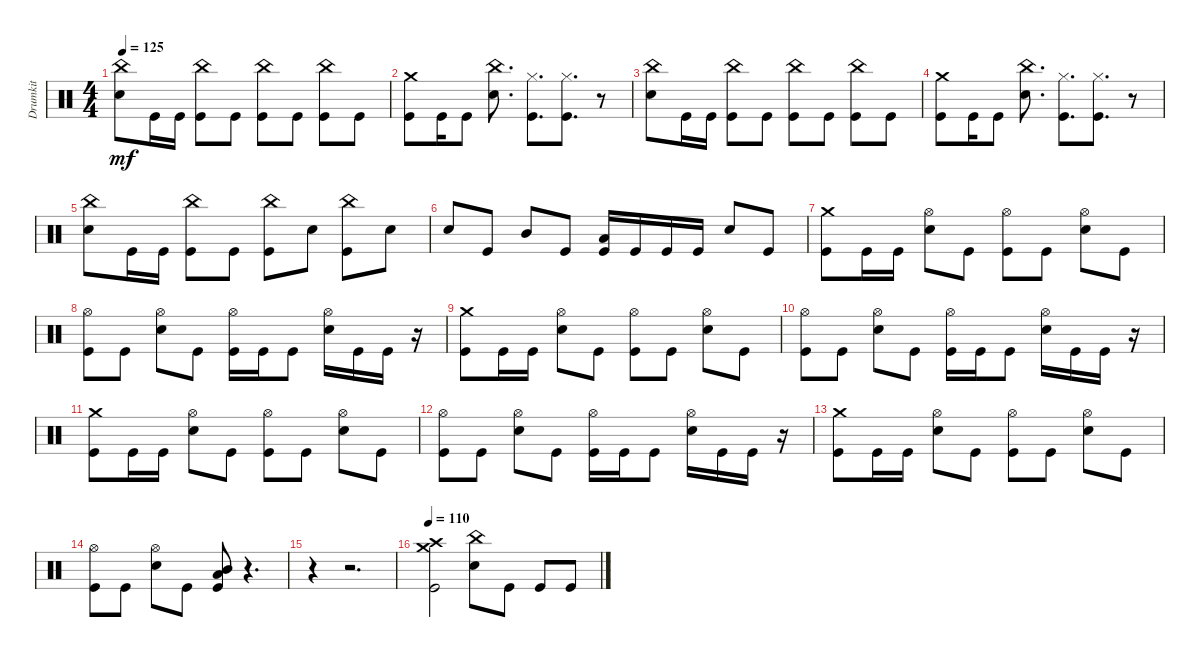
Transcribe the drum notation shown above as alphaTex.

\track ("Drumkit" "Drumkit") {instrument percussion}
\staff {score}
\articulation defaults
\ts (4 4)
\tempo 125
\clef neutral
\ks c
("Snare (hit) 2" "China (hit)").8{dy mf} "Kick (hit)".16 "Kick (hit)".16 ("Kick (hit)" "China (hit)").8 "Kick (hit)".8 ("Kick (hit)" "China (hit)").8 "Kick (hit)".8 ("Kick (hit)" "China (hit)").8 "Kick (hit)".8 |
("Kick (hit)" "Crash medium (hit)").8 "Kick (hit)".16 "Kick (hit)".8 ("Snare (hit) 2" "China (hit)").8{d} ("Kick (hit)" "Hi-Hat (closed)").8{d} ("Kick (hit)" "Hi-Hat (closed)").8{d} r.8 |
("Snare (hit) 2" "China (hit)").8 "Kick (hit)".16 "Kick (hit)".16 ("Kick (hit)" "China (hit)").8 "Kick (hit)".8 ("Kick (hit)" "China (hit)").8 "Kick (hit)".8 ("Kick (hit)" "China (hit)").8 "Kick (hit)".8 |
("Kick (hit)" "Crash medium (hit)").8 "Kick (hit)".16 "Kick (hit)".8 ("Snare (hit) 2" "China (hit)").8{d} ("Kick (hit)" "Hi-Hat (closed)").8{d} ("Kick (hit)" "Hi-Hat (closed)").8{d} r.8 |
("Snare (hit) 2" "China (hit)").8 "Kick (hit)".16 "Kick (hit)".16 ("Kick (hit)" "China (hit)").8 "Kick (hit)".8 ("Kick (hit)" "China (hit)").8 "Snare (hit) 2".8 ("Kick (hit)" "China (hit)").8 "Snare (hit) 2".8 |
"Snare (hit) 2".8 "Kick (hit)".8 "Mid Tom (hit)".8 "Kick (hit)".8 ("Low Tom (hit)" "Kick (hit)").16 "Kick (hit)".16 "Kick (hit)".16 "Kick (hit)".16 "Snare (hit) 2".8 "Kick (hit)".8 |
("Crash medium (hit)" "Kick (hit)").8 "Kick (hit)".16 "Kick (hit)".16 ("Snare (hit) 2" "Hi-Hat (open)").8 "Kick (hit)".8 ("Kick (hit)" "Hi-Hat (open)").8 "Kick (hit)".8 ("Snare (hit) 2" "Hi-Hat (open)").8 "Kick (hit)".8 |
("Kick (hit)" "Hi-Hat (open)").8 "Kick (hit)".8 ("Snare (hit) 2" "Hi-Hat (open)").8 "Kick (hit)".8 ("Kick (hit)" "Hi-Hat (open)").16 "Kick (hit)".16 "Kick (hit)".8 ("Snare (hit) 2" "Hi-Hat (open)").16 "Kick (hit)".16 "Kick (hit)".16 r.16 |
("Kick (hit)" "Crash medium (hit)").8 "Kick (hit)".16 "Kick (hit)".16 ("Snare (hit) 2" "Hi-Hat (open)").8 "Kick (hit)".8 ("Kick (hit)" "Hi-Hat (open)").8 "Kick (hit)".8 ("Snare (hit) 2" "Hi-Hat (open)").8 "Kick (hit)".8 |
("Kick (hit)" "Hi-Hat (open)").8 "Kick (hit)".8 ("Snare (hit) 2" "Hi-Hat (open)").8 "Kick (hit)".8 ("Kick (hit)" "Hi-Hat (open)").16 "Kick (hit)".16 "Kick (hit)".8 ("Snare (hit) 2" "Hi-Hat (open)").16 "Kick (hit)".16 "Kick (hit)".16 r.16 |
("Kick (hit)" "Crash medium (hit)").8 "Kick (hit)".16 "Kick (hit)".16 ("Snare (hit) 2" "Hi-Hat (open)").8 "Kick (hit)".8 ("Kick (hit)" "Hi-Hat (open)").8 "Kick (hit)".8 ("Snare (hit) 2" "Hi-Hat (open)").8 "Kick (hit)".8 |
("Kick (hit)" "Hi-Hat (open)").8 "Kick (hit)".8 ("Snare (hit) 2" "Hi-Hat (open)").8 "Kick (hit)".8 ("Kick (hit)" "Hi-Hat (open)").16 "Kick (hit)".16 "Kick (hit)".8 ("Snare (hit) 2" "Hi-Hat (open)").16 "Kick (hit)".16 "Kick (hit)".16 r.16 |
("Kick (hit)" "Crash medium (hit)").8 "Kick (hit)".16 "Kick (hit)".16 ("Snare (hit) 2" "Hi-Hat (open)").8 "Kick (hit)".8 ("Kick (hit)" "Hi-Hat (open)").8 "Kick (hit)".8 ("Snare (hit) 2" "Hi-Hat (open)").8 "Kick (hit)".8 |
("Kick (hit)" "Hi-Hat (open)").8 "Kick (hit)".8 ("Snare (hit) 2" "Hi-Hat (open)").8 "Kick (hit)".8 ("Mid Tom (hit)" "Low Floor Tom (hit)" "Kick (hit)").8 r.4{d} |
r.4 r.2{d} |
\tempo 110
("Kick (hit)" "Crash high (hit)" "Crash medium (hit)").2 ("Snare (hit) 2" "China (hit)").8 "Kick (hit)".8 "Kick (hit)".8 "Kick (hit)".8
